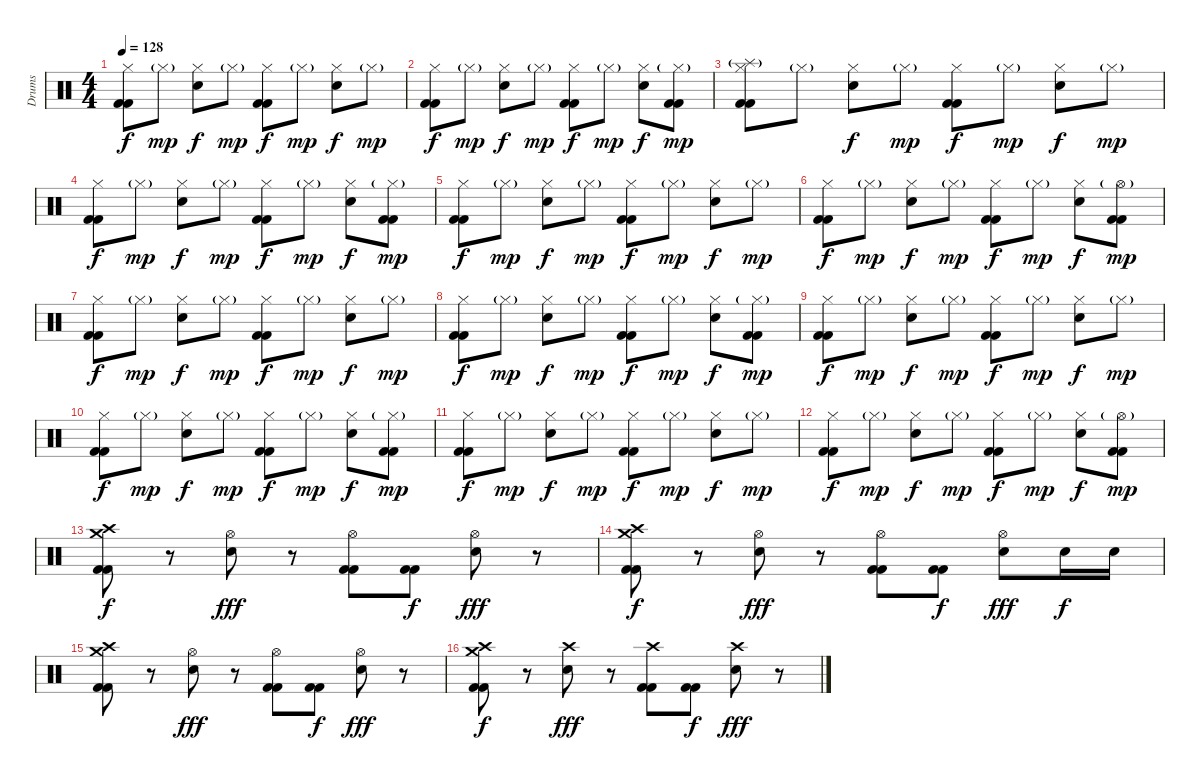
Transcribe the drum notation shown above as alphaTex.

\track ("Drums" "Drums") {instrument percussion}
\staff {score}
\articulation defaults
\ts (4 4)
\tempo 128
\clef neutral
\ks c
("Hi-Hat (closed)" "Kick (hit) 2" "Kick (hit) 2").8{dy f} "Hi-Hat (closed)"{g}.8{dy mp} ("Hi-Hat (closed)" "Electric Snare (hit)").8{dy f} "Hi-Hat (closed)"{g}.8{dy mp} ("Hi-Hat (closed)" "Kick (hit) 2" "Kick (hit) 2").8{dy f} "Hi-Hat (closed)"{g}.8{dy mp} ("Hi-Hat (closed)" "Electric Snare (hit)").8{dy f} "Hi-Hat (closed)"{g}.8{dy mp} |
("Hi-Hat (closed)" "Kick (hit) 2" "Kick (hit) 2").8{dy f} "Hi-Hat (closed)"{g}.8{dy mp} ("Hi-Hat (closed)" "Electric Snare (hit)").8{dy f} "Hi-Hat (closed)"{g}.8{dy mp} ("Hi-Hat (closed)" "Kick (hit) 2" "Kick (hit) 2").8{dy f} "Hi-Hat (closed)"{g}.8{dy mp} ("Hi-Hat (closed)" "Electric Snare (hit)").8{dy f} ("Hi-Hat (closed)"{g} "Kick (hit) 2" "Kick (hit) 2").8{dy mp} |
("Hi-Hat (closed)" "Splash (hit)"{g} "Kick (hit) 2" "Kick (hit) 2").8 "Hi-Hat (closed)"{g}.8 ("Hi-Hat (closed)" "Electric Snare (hit)").8{dy f} "Hi-Hat (closed)"{g}.8{dy mp} ("Hi-Hat (closed)" "Kick (hit) 2" "Kick (hit) 2").8{dy f} "Hi-Hat (closed)"{g}.8{dy mp} ("Hi-Hat (closed)" "Electric Snare (hit)").8{dy f} "Hi-Hat (closed)"{g}.8{dy mp} |
("Hi-Hat (closed)" "Kick (hit) 2" "Kick (hit) 2").8{dy f} "Hi-Hat (closed)"{g}.8{dy mp} ("Hi-Hat (closed)" "Electric Snare (hit)").8{dy f} "Hi-Hat (closed)"{g}.8{dy mp} ("Hi-Hat (closed)" "Kick (hit) 2" "Kick (hit) 2").8{dy f} "Hi-Hat (closed)"{g}.8{dy mp} ("Hi-Hat (closed)" "Electric Snare (hit)").8{dy f} ("Hi-Hat (closed)"{g} "Kick (hit) 2" "Kick (hit) 2").8{dy mp} |
("Hi-Hat (closed)" "Kick (hit) 2" "Kick (hit) 2").8{dy f} "Hi-Hat (closed)"{g}.8{dy mp} ("Hi-Hat (closed)" "Electric Snare (hit)").8{dy f} "Hi-Hat (closed)"{g}.8{dy mp} ("Hi-Hat (closed)" "Kick (hit) 2" "Kick (hit) 2").8{dy f} "Hi-Hat (closed)"{g}.8{dy mp} ("Hi-Hat (closed)" "Electric Snare (hit)").8{dy f} "Hi-Hat (closed)"{g}.8{dy mp} |
("Hi-Hat (closed)" "Kick (hit) 2" "Kick (hit) 2").8{dy f} "Hi-Hat (closed)"{g}.8{dy mp} ("Hi-Hat (closed)" "Electric Snare (hit)").8{dy f} "Hi-Hat (closed)"{g}.8{dy mp} ("Hi-Hat (closed)" "Kick (hit) 2" "Kick (hit) 2").8{dy f} "Hi-Hat (closed)"{g}.8{dy mp} ("Hi-Hat (closed)" "Electric Snare (hit)").8{dy f} ("Hi-Hat (open)"{g} "Kick (hit) 2" "Kick (hit) 2").8{dy mp} |
("Hi-Hat (closed)" "Kick (hit) 2" "Kick (hit) 2").8{dy f} "Hi-Hat (closed)"{g}.8{dy mp} ("Hi-Hat (closed)" "Electric Snare (hit)").8{dy f} "Hi-Hat (closed)"{g}.8{dy mp} ("Hi-Hat (closed)" "Kick (hit) 2" "Kick (hit) 2").8{dy f} "Hi-Hat (closed)"{g}.8{dy mp} ("Hi-Hat (closed)" "Electric Snare (hit)").8{dy f} "Hi-Hat (closed)"{g}.8{dy mp} |
("Hi-Hat (closed)" "Kick (hit) 2" "Kick (hit) 2").8{dy f} "Hi-Hat (closed)"{g}.8{dy mp} ("Hi-Hat (closed)" "Electric Snare (hit)").8{dy f} "Hi-Hat (closed)"{g}.8{dy mp} ("Hi-Hat (closed)" "Kick (hit) 2" "Kick (hit) 2").8{dy f} "Hi-Hat (closed)"{g}.8{dy mp} ("Hi-Hat (closed)" "Electric Snare (hit)").8{dy f} ("Hi-Hat (closed)"{g} "Kick (hit) 2" "Kick (hit) 2").8{dy mp} |
("Hi-Hat (closed)" "Kick (hit) 2" "Kick (hit) 2").8{dy f} "Hi-Hat (closed)"{g}.8{dy mp} ("Hi-Hat (closed)" "Electric Snare (hit)").8{dy f} "Hi-Hat (closed)"{g}.8{dy mp} ("Hi-Hat (closed)" "Kick (hit) 2" "Kick (hit) 2").8{dy f} "Hi-Hat (closed)"{g}.8{dy mp} ("Hi-Hat (closed)" "Electric Snare (hit)").8{dy f} "Hi-Hat (closed)"{g}.8{dy mp} |
("Hi-Hat (closed)" "Kick (hit) 2" "Kick (hit) 2").8{dy f} "Hi-Hat (closed)"{g}.8{dy mp} ("Hi-Hat (closed)" "Electric Snare (hit)").8{dy f} "Hi-Hat (closed)"{g}.8{dy mp} ("Hi-Hat (closed)" "Kick (hit) 2" "Kick (hit) 2").8{dy f} "Hi-Hat (closed)"{g}.8{dy mp} ("Hi-Hat (closed)" "Electric Snare (hit)").8{dy f} ("Hi-Hat (closed)"{g} "Kick (hit) 2" "Kick (hit) 2").8{dy mp} |
("Hi-Hat (closed)" "Kick (hit) 2" "Kick (hit) 2").8{dy f} "Hi-Hat (closed)"{g}.8{dy mp} ("Hi-Hat (closed)" "Electric Snare (hit)").8{dy f} "Hi-Hat (closed)"{g}.8{dy mp} ("Hi-Hat (closed)" "Kick (hit) 2" "Kick (hit) 2").8{dy f} "Hi-Hat (closed)"{g}.8{dy mp} ("Hi-Hat (closed)" "Electric Snare (hit)").8{dy f} "Hi-Hat (closed)"{g}.8{dy mp} |
("Hi-Hat (closed)" "Kick (hit) 2" "Kick (hit) 2").8{dy f} "Hi-Hat (closed)"{g}.8{dy mp} ("Hi-Hat (closed)" "Electric Snare (hit)").8{dy f} "Hi-Hat (closed)"{g}.8{dy mp} ("Hi-Hat (closed)" "Kick (hit) 2" "Kick (hit) 2").8{dy f} "Hi-Hat (closed)"{g}.8{dy mp} ("Hi-Hat (closed)" "Electric Snare (hit)").8{dy f} ("Hi-Hat (open)"{g} "Kick (hit) 2" "Kick (hit) 2").8{dy mp} |
("Crash medium (hit)" "Crash high (hit)" "Kick (hit) 2" "Kick (hit) 2").8{dy f} r.8 ("Hi-Hat (open)" "Electric Snare (hit)").8{dy fff} r.8 ("Hi-Hat (open)" "Kick (hit) 2" "Kick (hit) 2").8 ("Kick (hit) 2" "Kick (hit) 2").8{dy f} ("Hi-Hat (open)" "Electric Snare (hit)").8{dy fff} r.8 |
("Crash medium (hit)" "Crash high (hit)" "Kick (hit) 2" "Kick (hit) 2").8{dy f} r.8 ("Hi-Hat (open)" "Electric Snare (hit)").8{dy fff} r.8 ("Hi-Hat (open)" "Kick (hit) 2" "Kick (hit) 2").8 ("Kick (hit) 2" "Kick (hit) 2").8{dy f} ("Hi-Hat (open)" "Electric Snare (hit)").8{dy fff} "Electric Snare (hit)".16{dy f} "Electric Snare (hit)".16 |
("Crash medium (hit)" "Crash high (hit)" "Kick (hit) 2" "Kick (hit) 2").8 r.8 ("Hi-Hat (open)" "Electric Snare (hit)").8{dy fff} r.8 ("Hi-Hat (open)" "Kick (hit) 2" "Kick (hit) 2").8 ("Kick (hit) 2" "Kick (hit) 2").8{dy f} ("Hi-Hat (open)" "Electric Snare (hit)").8{dy fff} r.8 |
("Crash medium (hit)" "Crash high (hit)" "Kick (hit) 2" "Kick (hit) 2").8{dy f} r.8 ("Crash high (hit)" "Electric Snare (hit)").8{dy fff} r.8 ("Crash high (hit)" "Kick (hit) 2" "Kick (hit) 2").8 ("Kick (hit) 2" "Kick (hit) 2").8{dy f} ("Crash high (hit)" "Electric Snare (hit)").8{dy fff} r.8
